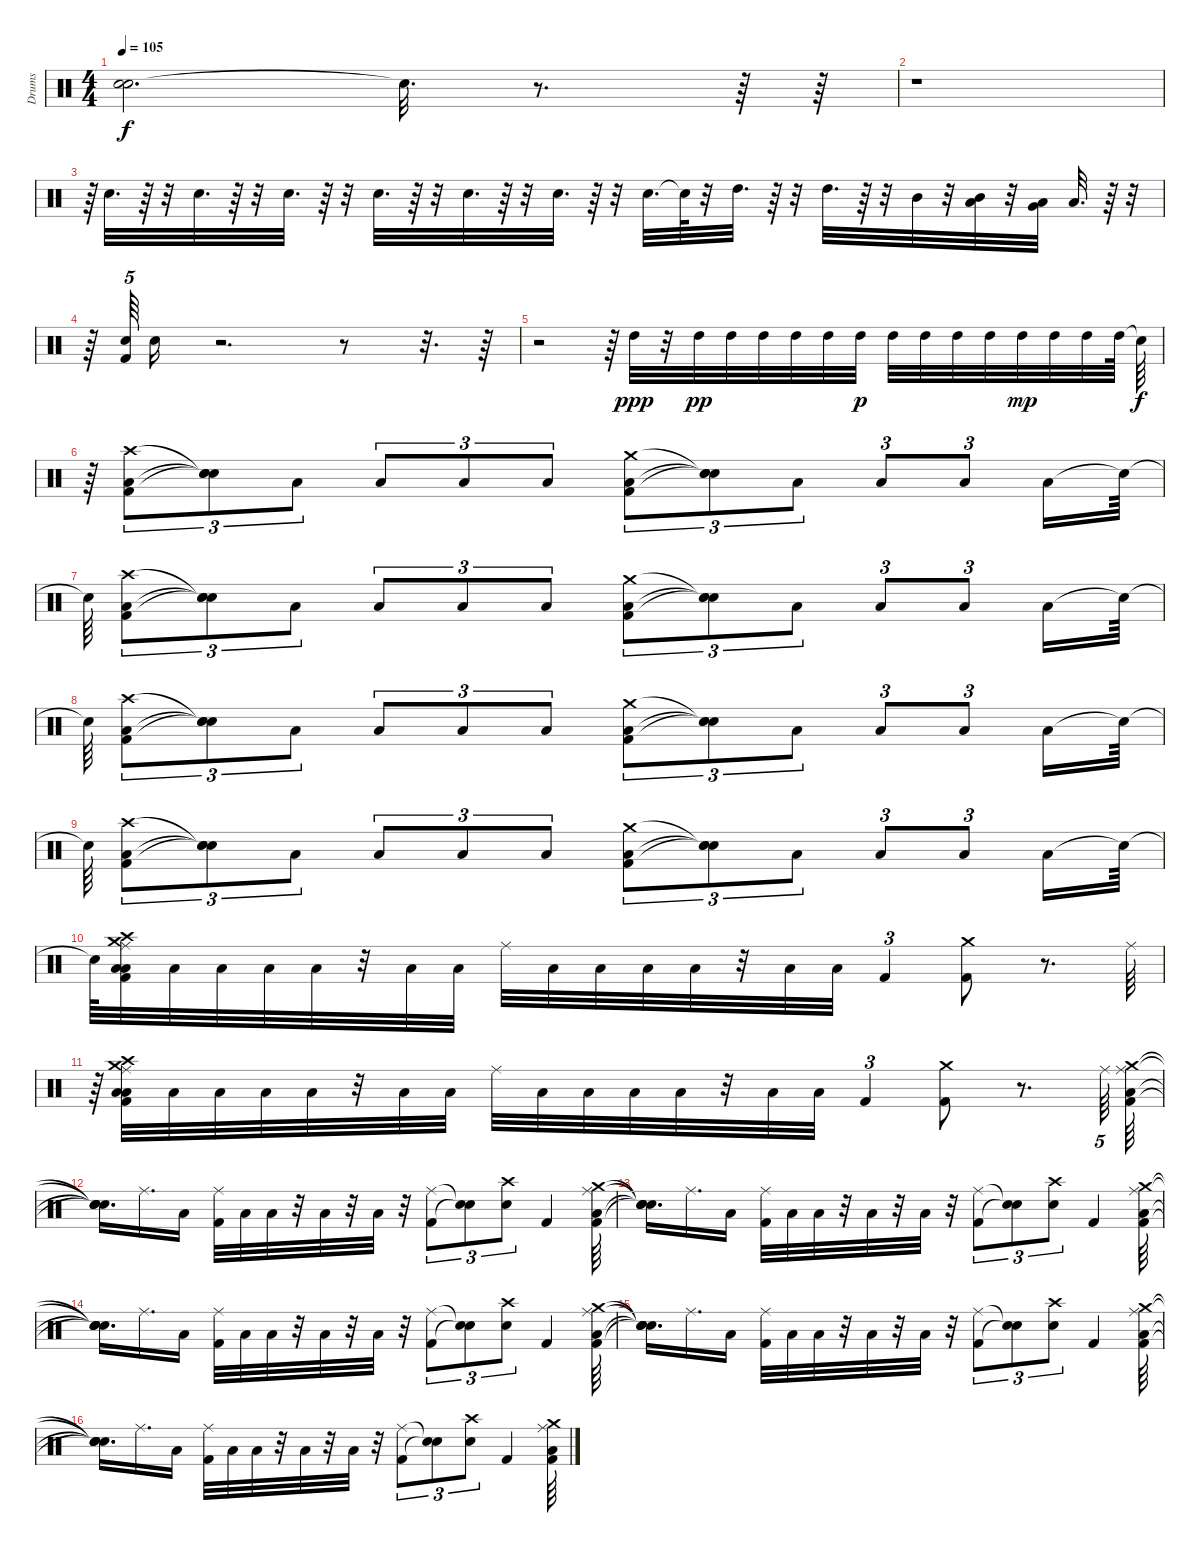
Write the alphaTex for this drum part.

\track ("Drums" "Drums") {instrument percussion}
\staff {score}
\articulation defaults
\ts (4 4)
\tempo 105
\clef neutral
\ks c
("Snare (hit)"{t} "Snare (hit)"{t}).2{d dy f} "Snare (hit)"{t}.32{d} r.8{d} r.64 r.64 |
r.1 |
r.64{tu (5 4)} "Electric Snare (hit)".32{d} r.64 r.32 "Electric Snare (hit)".32{d} r.64 r.32 "Electric Snare (hit)".32{d} r.64 r.32 "Electric Snare (hit)".32{d} r.64 r.32 "Electric Snare (hit)".32{d} r.64 r.32 "Electric Snare (hit)".32{d} r.64 r.32 "Electric Snare (hit)".32{d} "Snare (hit)"{t}.64 r.32 "High Tom (hit)".32{d} r.64 r.32 "High Tom (hit)".32{d} r.64 r.32 "Mid Tom (hit)".32 r.32 ("Low Tom (hit)" "Mid Tom (hit)").32 r.32 ("Very Low Tom (hit)" "Low Tom (hit)").32 "Low Floor Tom (hit)".32{d} r.64 r.32 |
r.64 ("Electric Snare (hit)" "Kick (hit) 2").64{tu (5 4)} "Electric Snare (hit)".16 r.2{d} r.8 r.32{d} r.64 |
r.2 r.64 "High Tom (hit)".32{dy ppp} r.32 "High Tom (hit)".32{dy pp} "High Tom (hit)".32 "High Tom (hit)".32 "High Tom (hit)".32 "High Tom (hit)".32 "High Tom (hit)".32{dy p} "High Tom (hit)".32 "High Tom (hit)".32 "High Tom (hit)".32 "High Tom (hit)".32 "High Tom (hit)".32{dy mp} "High Tom (hit)".32 "High Tom (hit)".32 "High Tom (hit)".64 "Snare (hit)"{t}.64{dy f} |
r.64 ("Low Tom (hit)" "Crash high (hit)" "Kick (hit) 2").8{tu (3 2)} ("Snare (hit)"{t} "Snare (hit)"{t} "Snare (hit)"{t}).8{tu (3 2)} "Low Tom (hit)".8{tu (3 2)} "Low Tom (hit)".8{tu (3 2)} "Low Tom (hit)".8{tu (3 2)} "Low Tom (hit)".8{tu (3 2)} ("Low Tom (hit)" "Crash medium (hit)" "Kick (hit) 2").8{tu (3 2)} ("Snare (hit)"{t} "Snare (hit)"{t} "Snare (hit)"{t}).8{tu (3 2)} "Low Tom (hit)".8{tu (3 2)} "Low Tom (hit)".8{tu (3 2)} "Low Tom (hit)".8{tu (3 2)} "Low Tom (hit)".16 "Snare (hit)"{t}.64 |
"Snare (hit)"{t}.64 ("Low Tom (hit)" "Crash high (hit)" "Kick (hit) 2").8{tu (3 2)} ("Snare (hit)"{t} "Snare (hit)"{t} "Snare (hit)"{t}).8{tu (3 2)} "Low Tom (hit)".8{tu (3 2)} "Low Tom (hit)".8{tu (3 2)} "Low Tom (hit)".8{tu (3 2)} "Low Tom (hit)".8{tu (3 2)} ("Low Tom (hit)" "Crash medium (hit)" "Kick (hit) 2").8{tu (3 2)} ("Snare (hit)"{t} "Snare (hit)"{t} "Snare (hit)"{t}).8{tu (3 2)} "Low Tom (hit)".8{tu (3 2)} "Low Tom (hit)".8{tu (3 2)} "Low Tom (hit)".8{tu (3 2)} "Low Tom (hit)".16 "Snare (hit)"{t}.64 |
"Snare (hit)"{t}.64 ("Low Tom (hit)" "Crash high (hit)" "Kick (hit) 2").8{tu (3 2)} ("Snare (hit)"{t} "Snare (hit)"{t} "Snare (hit)"{t}).8{tu (3 2)} "Low Tom (hit)".8{tu (3 2)} "Low Tom (hit)".8{tu (3 2)} "Low Tom (hit)".8{tu (3 2)} "Low Tom (hit)".8{tu (3 2)} ("Low Tom (hit)" "Crash medium (hit)" "Kick (hit) 2").8{tu (3 2)} ("Snare (hit)"{t} "Snare (hit)"{t} "Snare (hit)"{t}).8{tu (3 2)} "Low Tom (hit)".8{tu (3 2)} "Low Tom (hit)".8{tu (3 2)} "Low Tom (hit)".8{tu (3 2)} "Low Tom (hit)".16 "Snare (hit)"{t}.64 |
"Snare (hit)"{t}.64 ("Low Tom (hit)" "Crash high (hit)" "Kick (hit) 2").8{tu (3 2)} ("Snare (hit)"{t} "Snare (hit)"{t} "Snare (hit)"{t}).8{tu (3 2)} "Low Tom (hit)".8{tu (3 2)} "Low Tom (hit)".8{tu (3 2)} "Low Tom (hit)".8{tu (3 2)} "Low Tom (hit)".8{tu (3 2)} ("Low Tom (hit)" "Crash medium (hit)" "Kick (hit) 2").8{tu (3 2)} ("Snare (hit)"{t} "Snare (hit)"{t} "Snare (hit)"{t}).8{tu (3 2)} "Low Tom (hit)".8{tu (3 2)} "Low Tom (hit)".8{tu (3 2)} "Low Tom (hit)".8{tu (3 2)} "Low Tom (hit)".16 "Snare (hit)"{t}.64 |
"Snare (hit)"{t}.64 ("Low Tom (hit)" "Crash medium (hit)" "Kick (hit) 2" "Crash high (hit)" "Low Tom (hit)" "Ride (middle)").32 "Low Tom (hit)".32 "Low Tom (hit)".32 "Low Tom (hit)".32 "Low Tom (hit)".32 r.32 "Low Tom (hit)".32 "Low Tom (hit)".32 "Ride (middle)".32 "Low Tom (hit)".32 "Low Tom (hit)".32 "Low Tom (hit)".32 "Low Tom (hit)".32 r.32 "Low Tom (hit)".32 "Low Tom (hit)".32 "Kick (hit) 2".4{tu (3 2)} ("Crash medium (hit)" "Kick (hit) 2").8 r.8{d} "Ride (middle)".64 |
r.64 ("Low Tom (hit)" "Crash medium (hit)" "Kick (hit) 2" "Crash high (hit)" "Low Tom (hit)" "Ride (middle)").32 "Low Tom (hit)".32 "Low Tom (hit)".32 "Low Tom (hit)".32 "Low Tom (hit)".32 r.32 "Low Tom (hit)".32 "Low Tom (hit)".32 "Ride (middle)".32 "Low Tom (hit)".32 "Low Tom (hit)".32 "Low Tom (hit)".32 "Low Tom (hit)".32 r.32 "Low Tom (hit)".32 "Low Tom (hit)".32 "Kick (hit) 2".4{tu (3 2)} ("Crash medium (hit)" "Kick (hit) 2").8 r.8{d} "Ride (middle)".64{tu (5 4)} ("Low Tom (hit)" "Crash medium (hit)" "Kick (hit) 2" "Ride (middle)").64 |
("Snare (hit)"{t} "Snare (hit)"{t} "Snare (hit)"{t} "Snare (hit)"{t}).16{d} "Ride (middle)".16{d} "Low Tom (hit)".16 ("Kick (hit) 2" "Ride (middle)").32 "Low Tom (hit)".32 "Low Tom (hit)".32 r.32 "Low Tom (hit)".32 r.32 "Low Tom (hit)".32 r.32 ("Ride (middle)" "Kick (hit) 2").8{tu (3 2)} ("Snare (hit)"{t} "Snare (hit)"{t}).8{tu (3 2)} ("Electric Snare (hit)" "Crash high (hit)").8{tu (3 2)} "Kick (hit) 2".4 ("Low Tom (hit)" "Crash medium (hit)" "Kick (hit) 2" "Ride (middle)").64 |
("Snare (hit)"{t} "Snare (hit)"{t} "Snare (hit)"{t} "Snare (hit)"{t}).16{d} "Ride (middle)".16{d} "Low Tom (hit)".16 ("Kick (hit) 2" "Ride (middle)").32 "Low Tom (hit)".32 "Low Tom (hit)".32 r.32 "Low Tom (hit)".32 r.32 "Low Tom (hit)".32 r.32 ("Ride (middle)" "Kick (hit) 2").8{tu (3 2)} ("Snare (hit)"{t} "Snare (hit)"{t}).8{tu (3 2)} ("Electric Snare (hit)" "Crash high (hit)").8{tu (3 2)} "Kick (hit) 2".4 ("Low Tom (hit)" "Crash medium (hit)" "Kick (hit) 2" "Ride (middle)").64 |
("Snare (hit)"{t} "Snare (hit)"{t} "Snare (hit)"{t} "Snare (hit)"{t}).16{d} "Ride (middle)".16{d} "Low Tom (hit)".16 ("Kick (hit) 2" "Ride (middle)").32 "Low Tom (hit)".32 "Low Tom (hit)".32 r.32 "Low Tom (hit)".32 r.32 "Low Tom (hit)".32 r.32 ("Ride (middle)" "Kick (hit) 2").8{tu (3 2)} ("Snare (hit)"{t} "Snare (hit)"{t}).8{tu (3 2)} ("Electric Snare (hit)" "Crash high (hit)").8{tu (3 2)} "Kick (hit) 2".4 ("Low Tom (hit)" "Crash medium (hit)" "Kick (hit) 2" "Ride (middle)").64 |
("Snare (hit)"{t} "Snare (hit)"{t} "Snare (hit)"{t} "Snare (hit)"{t}).16{d} "Ride (middle)".16{d} "Low Tom (hit)".16 ("Kick (hit) 2" "Ride (middle)").32 "Low Tom (hit)".32 "Low Tom (hit)".32 r.32 "Low Tom (hit)".32 r.32 "Low Tom (hit)".32 r.32 ("Ride (middle)" "Kick (hit) 2").8{tu (3 2)} ("Snare (hit)"{t} "Snare (hit)"{t}).8{tu (3 2)} ("Electric Snare (hit)" "Crash high (hit)").8{tu (3 2)} "Kick (hit) 2".4 ("Low Tom (hit)" "Crash medium (hit)" "Kick (hit) 2" "Ride (middle)").64 |
("Snare (hit)"{t} "Snare (hit)"{t} "Snare (hit)"{t} "Snare (hit)"{t}).16{d} "Ride (middle)".16{d} "Low Tom (hit)".16 ("Kick (hit) 2" "Ride (middle)").32 "Low Tom (hit)".32 "Low Tom (hit)".32 r.32 "Low Tom (hit)".32 r.32 "Low Tom (hit)".32 r.32 ("Ride (middle)" "Kick (hit) 2").8{tu (3 2)} ("Snare (hit)"{t} "Snare (hit)"{t}).8{tu (3 2)} ("Electric Snare (hit)" "Crash high (hit)").8{tu (3 2)} "Kick (hit) 2".4 ("Low Tom (hit)" "Crash medium (hit)" "Kick (hit) 2" "Ride (middle)").64
